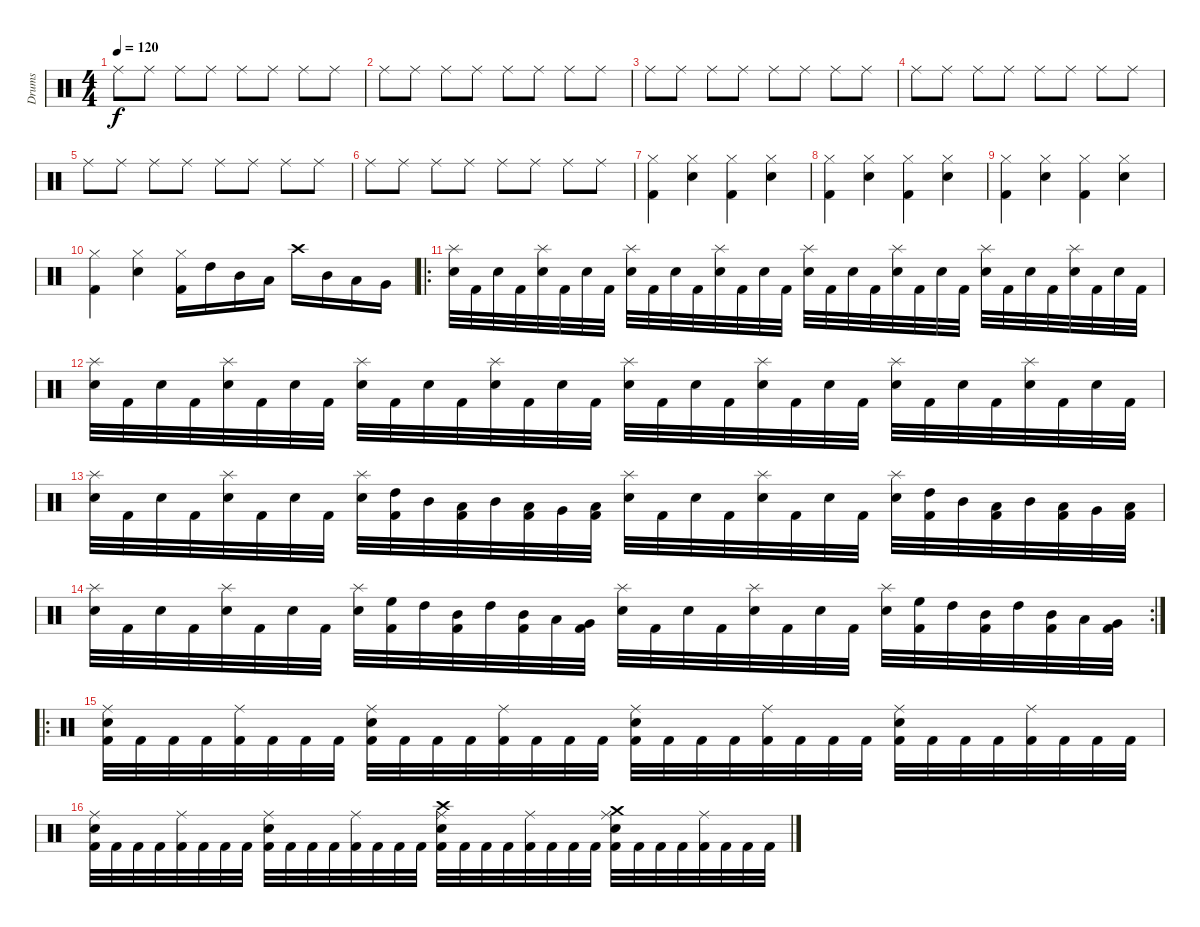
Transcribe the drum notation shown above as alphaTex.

\track ("Drums" "Drums") {instrument percussion}
\staff {score}
\articulation defaults
\ts (4 4)
\tempo 120
\clef neutral
\ks c "Ride (middle)".8{dy f} "Ride (middle)".8 "Ride (middle)".8 "Ride (middle)".8 "Ride (middle)".8 "Ride (middle)".8 "Ride (middle)".8 "Ride (middle)".8
|
"Ride (middle)".8 "Ride (middle)".8 "Ride (middle)".8 "Ride (middle)".8 "Ride (middle)".8 "Ride (middle)".8 "Ride (middle)".8 "Ride (middle)".8 |
"Ride (middle)".8 "Ride (middle)".8 "Ride (middle)".8 "Ride (middle)".8 "Ride (middle)".8 "Ride (middle)".8 "Ride (middle)".8 "Ride (middle)".8 |
"Ride (middle)".8 "Ride (middle)".8 "Ride (middle)".8 "Ride (middle)".8 "Ride (middle)".8 "Ride (middle)".8 "Ride (middle)".8 "Ride (middle)".8 |
"Ride (middle)".8 "Ride (middle)".8 "Ride (middle)".8 "Ride (middle)".8 "Ride (middle)".8 "Ride (middle)".8 "Ride (middle)".8 "Ride (middle)".8 |
"Ride (middle)".8 "Ride (middle)".8 "Ride (middle)".8 "Ride (middle)".8 "Ride (middle)".8 "Ride (middle)".8 "Ride (middle)".8 "Ride (middle)".8 |
("Hi-Hat (closed)" "Kick (hit) 2").4 ("Hi-Hat (closed)" "Snare (hit) 2").4 ("Hi-Hat (closed)" "Kick (hit) 2").4 ("Hi-Hat (closed)" "Snare (hit) 2").4 |
("Hi-Hat (closed)" "Kick (hit) 2").4 ("Hi-Hat (closed)" "Snare (hit) 2").4 ("Hi-Hat (closed)" "Kick (hit) 2").4 ("Hi-Hat (closed)" "Snare (hit) 2").4 |
("Hi-Hat (closed)" "Kick (hit) 2").4 ("Hi-Hat (closed)" "Snare (hit) 2").4 ("Hi-Hat (closed)" "Kick (hit) 2").4 ("Hi-Hat (closed)" "Snare (hit) 2").4 |
("Hi-Hat (closed)" "Kick (hit) 2").4 ("Hi-Hat (closed)" "Snare (hit) 2").4 ("Hi-Hat (closed)" "Kick (hit) 2").16 "High Tom (hit)".16 "Mid Tom (hit)".16 "Low Tom (hit)".16 "Crash high (hit)".16 "Mid Tom (hit)".16 "Low Tom (hit)".16 "Very Low Tom (hit)".16 |
\ro
("Splash (hit)" "Snare (hit) 2").32 "Kick (hit) 2".32 "Snare (hit) 2".32 "Kick (hit) 2".32 ("Splash (hit)" "Snare (hit) 2").32 "Kick (hit) 2".32 "Snare (hit) 2".32 "Kick (hit) 2".32 ("Splash (hit)" "Snare (hit) 2").32 "Kick (hit) 2".32 "Snare (hit) 2".32 "Kick (hit) 2".32 ("Splash (hit)" "Snare (hit) 2").32 "Kick (hit) 2".32 "Snare (hit) 2".32 "Kick (hit) 2".32 ("Splash (hit)" "Snare (hit) 2").32 "Kick (hit) 2".32 "Snare (hit) 2".32 "Kick (hit) 2".32 ("Splash (hit)" "Snare (hit) 2").32 "Kick (hit) 2".32 "Snare (hit) 2".32 "Kick (hit) 2".32 ("Splash (hit)" "Snare (hit) 2").32 "Kick (hit) 2".32 "Snare (hit) 2".32 "Kick (hit) 2".32 ("Splash (hit)" "Snare (hit) 2").32 "Kick (hit) 2".32 "Snare (hit) 2".32 "Kick (hit) 2".32 |
("Splash (hit)" "Snare (hit) 2").32 "Kick (hit) 2".32 "Snare (hit) 2".32 "Kick (hit) 2".32 ("Splash (hit)" "Snare (hit) 2").32 "Kick (hit) 2".32 "Snare (hit) 2".32 "Kick (hit) 2".32 ("Splash (hit)" "Snare (hit) 2").32 "Kick (hit) 2".32 "Snare (hit) 2".32 "Kick (hit) 2".32 ("Splash (hit)" "Snare (hit) 2").32 "Kick (hit) 2".32 "Snare (hit) 2".32 "Kick (hit) 2".32 ("Splash (hit)" "Snare (hit) 2").32 "Kick (hit) 2".32 "Snare (hit) 2".32 "Kick (hit) 2".32 ("Splash (hit)" "Snare (hit) 2").32 "Kick (hit) 2".32 "Snare (hit) 2".32 "Kick (hit) 2".32 ("Splash (hit)" "Snare (hit) 2").32 "Kick (hit) 2".32 "Snare (hit) 2".32 "Kick (hit) 2".32 ("Splash (hit)" "Snare (hit) 2").32 "Kick (hit) 2".32 "Snare (hit) 2".32 "Kick (hit) 2".32 |
("Splash (hit)" "Snare (hit) 2").32 "Kick (hit) 2".32 "Snare (hit) 2".32 "Kick (hit) 2".32 ("Splash (hit)" "Snare (hit) 2").32 "Kick (hit) 2".32 "Snare (hit) 2".32 "Kick (hit) 2".32 ("Splash (hit)" "Snare (hit) 2").32 ("High Tom (hit)" "Kick (hit) 2").32 "Mid Tom (hit)".32 ("Low Tom (hit)" "Kick (hit) 2").32 "Mid Tom (hit)".32 ("Low Tom (hit)" "Kick (hit) 2").32 "Very Low Tom (hit)".32 ("Low Floor Tom (hit)" "Kick (hit) 2").32 ("Splash (hit)" "Snare (hit) 2").32 "Kick (hit) 2".32 "Snare (hit) 2".32 "Kick (hit) 2".32 ("Splash (hit)" "Snare (hit) 2").32 "Kick (hit) 2".32 "Snare (hit) 2".32 "Kick (hit) 2".32 ("Splash (hit)" "Snare (hit) 2").32 ("High Tom (hit)" "Kick (hit) 2").32 "Mid Tom (hit)".32 ("Low Tom (hit)" "Kick (hit) 2").32 "Mid Tom (hit)".32 ("Low Tom (hit)" "Kick (hit) 2").32 "Very Low Tom (hit)".32 ("Low Floor Tom (hit)" "Kick (hit) 2").32 |
\rc 2
("Splash (hit)" "Snare (hit) 2").32 "Kick (hit) 2".32 "Snare (hit) 2".32 "Kick (hit) 2".32 ("Splash (hit)" "Snare (hit) 2").32 "Kick (hit) 2".32 "Snare (hit) 2".32 "Kick (hit) 2".32 ("Splash (hit)" "Snare (hit) 2").32 ("High Floor Tom (hit)" "Kick (hit) 2").32 "High Tom (hit)".32 ("Mid Tom (hit)" "Kick (hit) 2").32 "High Tom (hit)".32 ("Mid Tom (hit)" "Kick (hit) 2").32 "Low Tom (hit)".32 ("Very Low Tom (hit)" "Kick (hit) 2").32 ("Splash (hit)" "Snare (hit) 2").32 "Kick (hit) 2".32 "Snare (hit) 2".32 "Kick (hit) 2".32 ("Splash (hit)" "Snare (hit) 2").32 "Kick (hit) 2".32 "Snare (hit) 2".32 "Kick (hit) 2".32 ("Splash (hit)" "Snare (hit) 2").32 ("High Floor Tom (hit)" "Kick (hit) 2").32 "High Tom (hit)".32 ("Mid Tom (hit)" "Kick (hit) 2").32 "High Tom (hit)".32 ("Mid Tom (hit)" "Kick (hit) 2").32 "Low Tom (hit)".32 ("Very Low Tom (hit)" "Kick (hit) 2").32 |
\ro
("Ride (middle)" "Snare (hit) 2" "Kick (hit) 2").32 "Kick (hit) 2".32 "Kick (hit) 2".32 "Kick (hit) 2".32 ("Ride (middle)" "Kick (hit) 2").32 "Kick (hit) 2".32 "Kick (hit) 2".32 "Kick (hit) 2".32 ("Ride (middle)" "Snare (hit) 2" "Kick (hit) 2").32 "Kick (hit) 2".32 "Kick (hit) 2".32 "Kick (hit) 2".32 ("Ride (middle)" "Kick (hit) 2").32 "Kick (hit) 2".32 "Kick (hit) 2".32 "Kick (hit) 2".32 ("Ride (middle)" "Snare (hit) 2" "Kick (hit) 2").32 "Kick (hit) 2".32 "Kick (hit) 2".32 "Kick (hit) 2".32 ("Ride (middle)" "Kick (hit) 2").32 "Kick (hit) 2".32 "Kick (hit) 2".32 "Kick (hit) 2".32 ("Ride (middle)" "Snare (hit) 2" "Kick (hit) 2").32 "Kick (hit) 2".32 "Kick (hit) 2".32 "Kick (hit) 2".32 ("Ride (middle)" "Kick (hit) 2").32 "Kick (hit) 2".32 "Kick (hit) 2".32 "Kick (hit) 2".32 |
("Ride (middle)" "Snare (hit) 2" "Kick (hit) 2").32 "Kick (hit) 2".32 "Kick (hit) 2".32 "Kick (hit) 2".32 ("Ride (middle)" "Kick (hit) 2").32 "Kick (hit) 2".32 "Kick (hit) 2".32 "Kick (hit) 2".32 ("Ride (middle)" "Snare (hit) 2" "Kick (hit) 2").32 "Kick (hit) 2".32 "Kick (hit) 2".32 "Kick (hit) 2".32 ("Ride (middle)" "Kick (hit) 2").32 "Kick (hit) 2".32 "Kick (hit) 2".32 "Kick (hit) 2".32 ("Crash high (hit)" "Ride (middle)" "Snare (hit) 2" "Kick (hit) 2").32 "Kick (hit) 2".32 "Kick (hit) 2".32 "Kick (hit) 2".32 ("Ride (middle)" "Kick (hit) 2").32 "Kick (hit) 2".32 "Kick (hit) 2".32 "Kick (hit) 2".32 ("Crash medium (hit)" "Ride (middle)" "Snare (hit) 2" "Kick (hit) 2").32 "Kick (hit) 2".32 "Kick (hit) 2".32 "Kick (hit) 2".32 ("Ride (middle)" "Kick (hit) 2").32 "Kick (hit) 2".32 "Kick (hit) 2".32 "Kick (hit) 2".32
